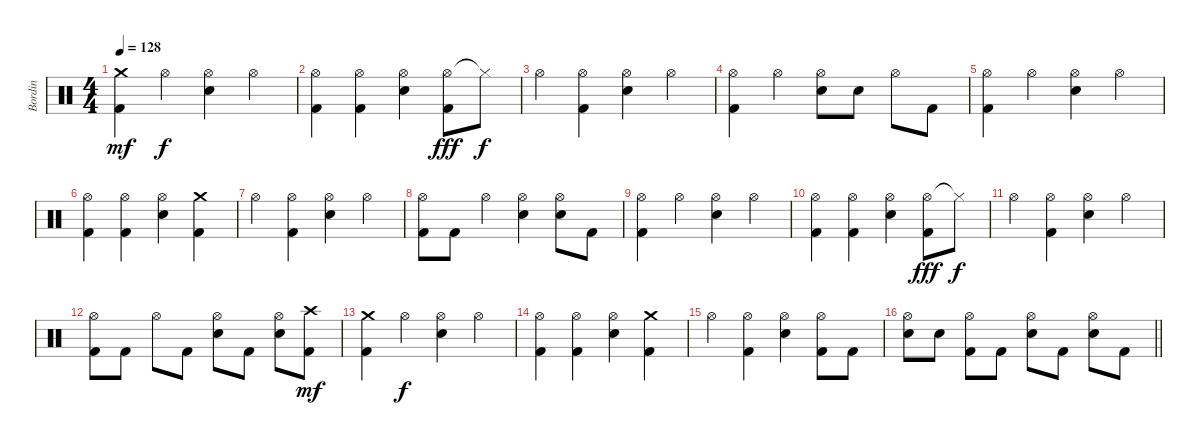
\track ("Bordin" "Bordin") {instrument percussion}
\staff {score}
\articulation defaults
\ts (4 4)
\tempo 128
\clef neutral
\ks c
("Crash medium (hit)" "Kick (hit) 2").4{dy mf} "Hi-Hat (open)".4{dy f} ("Hi-Hat (open)" "Electric Snare (hit)").4 "Hi-Hat (open)".4 |
("Hi-Hat (open)" "Kick (hit) 2").4 ("Hi-Hat (open)" "Kick (hit) 2").4 ("Hi-Hat (open)" "Electric Snare (hit)").4 ("Hi-Hat (open)" "Kick (hit) 2").8{dy fff} "Hi-Hat (closed)"{t}.8{dy f} |
"Hi-Hat (open)".4 ("Hi-Hat (open)" "Kick (hit) 2").4 ("Hi-Hat (open)" "Electric Snare (hit)").4 "Hi-Hat (open)".4 |
("Hi-Hat (open)" "Kick (hit) 2").4 "Hi-Hat (open)".4 ("Hi-Hat (open)" "Electric Snare (hit)").8 "Electric Snare (hit)".8 "Hi-Hat (open)".8 "Kick (hit) 2".8 |
("Hi-Hat (open)" "Kick (hit) 2").4 "Hi-Hat (open)".4 ("Hi-Hat (open)" "Electric Snare (hit)").4 "Hi-Hat (open)".4 |
("Hi-Hat (open)" "Kick (hit) 2").4 ("Hi-Hat (open)" "Kick (hit) 2").4 ("Hi-Hat (open)" "Electric Snare (hit)").4 ("Crash medium (hit)" "Kick (hit) 2").4 |
"Hi-Hat (open)".4 ("Hi-Hat (open)" "Kick (hit) 2").4 ("Hi-Hat (open)" "Electric Snare (hit)").4 "Hi-Hat (open)".4 |
("Hi-Hat (open)" "Kick (hit) 2").8 "Kick (hit) 2".8 "Hi-Hat (open)".4 ("Hi-Hat (open)" "Electric Snare (hit)").4 ("Hi-Hat (open)" "Electric Snare (hit)").8 "Kick (hit) 2".8 |
("Hi-Hat (open)" "Kick (hit) 2").4 "Hi-Hat (open)".4 ("Hi-Hat (open)" "Electric Snare (hit)").4 "Hi-Hat (open)".4 |
("Hi-Hat (open)" "Kick (hit) 2").4 ("Hi-Hat (open)" "Kick (hit) 2").4 ("Hi-Hat (open)" "Electric Snare (hit)").4 ("Hi-Hat (open)" "Kick (hit) 2").8{dy fff} "Hi-Hat (closed)"{t}.8{dy f} |
"Hi-Hat (open)".4 ("Hi-Hat (open)" "Kick (hit) 2").4 ("Hi-Hat (open)" "Electric Snare (hit)").4 "Hi-Hat (open)".4 |
("Hi-Hat (open)" "Kick (hit) 2").8 "Kick (hit) 2".8 "Hi-Hat (open)".8 "Kick (hit) 2".8 ("Hi-Hat (open)" "Electric Snare (hit)").8 "Kick (hit) 2".8 ("Hi-Hat (open)" "Electric Snare (hit)").8 ("Crash high (hit)" "Kick (hit) 2").8{dy mf} |
("Crash medium (hit)" "Kick (hit) 2").4 "Hi-Hat (open)".4{dy f} ("Hi-Hat (open)" "Electric Snare (hit)").4 "Hi-Hat (open)".4 |
("Hi-Hat (open)" "Kick (hit) 2").4 ("Hi-Hat (open)" "Kick (hit) 2").4 ("Hi-Hat (open)" "Electric Snare (hit)").4 ("Crash medium (hit)" "Kick (hit) 2").4 |
"Hi-Hat (open)".4 ("Hi-Hat (open)" "Kick (hit) 2").4 ("Hi-Hat (open)" "Electric Snare (hit)").4 ("Hi-Hat (open)" "Kick (hit) 2").8 "Kick (hit) 2".8 |
\barLineRight lightlight
("Hi-Hat (open)" "Electric Snare (hit)").8 "Electric Snare (hit)".8 ("Hi-Hat (open)" "Kick (hit) 2").8 "Kick (hit) 2".8 ("Hi-Hat (open)" "Electric Snare (hit)").8 "Kick (hit) 2".8 ("Hi-Hat (open)" "Electric Snare (hit)").8 "Kick (hit) 2".8
